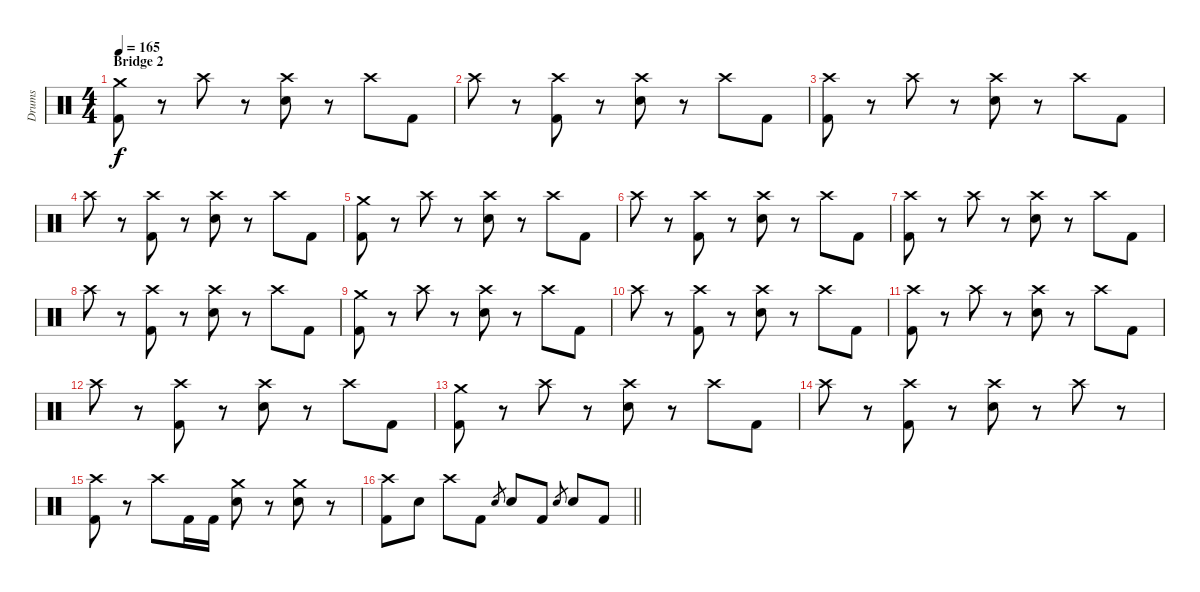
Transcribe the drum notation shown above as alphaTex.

\track ("Drums" "Drums") {instrument percussion}
\staff {score}
\articulation defaults
\ts (4 4)
\section ("" "Bridge 2")
\tempo 165
\clef neutral
\ks c
("Crash medium (hit)" "Kick (hit) 2").8{dy f} r.8 "Crash high (hit)".8 r.8 ("Crash high (hit)" "Electric Snare (hit)").8 r.8 "Crash high (hit)".8 "Kick (hit) 2".8 |
"Crash high (hit)".8 r.8 ("Crash high (hit)" "Kick (hit) 2").8 r.8 ("Crash high (hit)" "Electric Snare (hit)").8 r.8 "Crash high (hit)".8 "Kick (hit) 2".8 |
("Crash high (hit)" "Kick (hit) 2").8 r.8 "Crash high (hit)".8 r.8 ("Crash high (hit)" "Electric Snare (hit)").8 r.8 "Crash high (hit)".8 "Kick (hit) 2".8 |
"Crash high (hit)".8 r.8 ("Crash high (hit)" "Kick (hit) 2").8 r.8 ("Crash high (hit)" "Electric Snare (hit)").8 r.8 "Crash high (hit)".8 "Kick (hit) 2".8 |
("Crash medium (hit)" "Kick (hit) 2").8 r.8 "Crash high (hit)".8 r.8 ("Crash high (hit)" "Electric Snare (hit)").8 r.8 "Crash high (hit)".8 "Kick (hit) 2".8 |
"Crash high (hit)".8 r.8 ("Crash high (hit)" "Kick (hit) 2").8 r.8 ("Crash high (hit)" "Electric Snare (hit)").8 r.8 "Crash high (hit)".8 "Kick (hit) 2".8 |
("Crash high (hit)" "Kick (hit) 2").8 r.8 "Crash high (hit)".8 r.8 ("Crash high (hit)" "Electric Snare (hit)").8 r.8 "Crash high (hit)".8 "Kick (hit) 2".8 |
"Crash high (hit)".8 r.8 ("Crash high (hit)" "Kick (hit) 2").8 r.8 ("Crash high (hit)" "Electric Snare (hit)").8 r.8 "Crash high (hit)".8 "Kick (hit) 2".8 |
("Crash medium (hit)" "Kick (hit) 2").8 r.8 "Crash high (hit)".8 r.8 ("Crash high (hit)" "Electric Snare (hit)").8 r.8 "Crash high (hit)".8 "Kick (hit) 2".8 |
"Crash high (hit)".8 r.8 ("Crash high (hit)" "Kick (hit) 2").8 r.8 ("Crash high (hit)" "Electric Snare (hit)").8 r.8 "Crash high (hit)".8 "Kick (hit) 2".8 |
("Crash high (hit)" "Kick (hit) 2").8 r.8 "Crash high (hit)".8 r.8 ("Crash high (hit)" "Electric Snare (hit)").8 r.8 "Crash high (hit)".8 "Kick (hit) 2".8 |
"Crash high (hit)".8 r.8 ("Crash high (hit)" "Kick (hit) 2").8 r.8 ("Crash high (hit)" "Electric Snare (hit)").8 r.8 "Crash high (hit)".8 "Kick (hit) 2".8 |
("Crash medium (hit)" "Kick (hit) 2").8 r.8 "Crash high (hit)".8 r.8 ("Crash high (hit)" "Electric Snare (hit)").8 r.8 "Crash high (hit)".8 "Kick (hit) 2".8 |
"Crash high (hit)".8 r.8 ("Crash high (hit)" "Kick (hit) 2").8 r.8 ("Crash high (hit)" "Electric Snare (hit)").8 r.8 "Crash high (hit)".8 r.8 |
("Crash high (hit)" "Kick (hit) 2").8 r.8 "Crash high (hit)".8 "Kick (hit) 2".16 "Kick (hit) 2".16 ("Crash medium (hit)" "Electric Snare (hit)").8 r.8 ("Crash medium (hit)" "Electric Snare (hit)").8 r.8 |
\barLineRight lightlight
("Crash high (hit)" "Kick (hit) 2").8 "Electric Snare (hit)".8 "Crash high (hit)".8 "Kick (hit) 2".8 "Electric Snare (hit)".8{gr} "Electric Snare (hit)".8 "Kick (hit) 2".8 "Electric Snare (hit)".8{gr} "Electric Snare (hit)".8 "Kick (hit) 2".8
